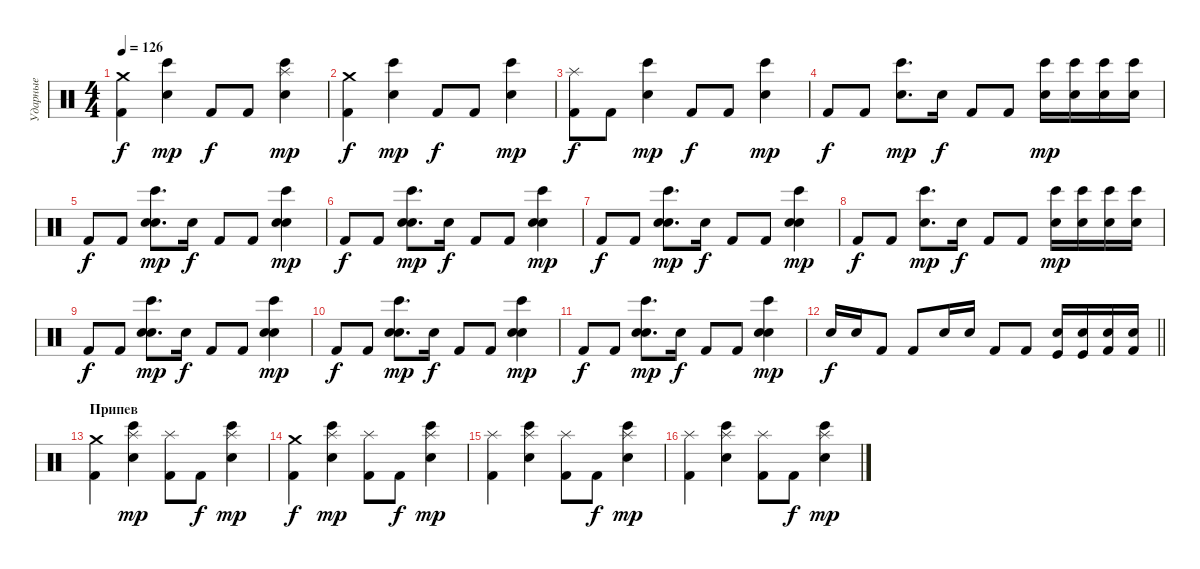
\track ("Ударные" "Ударные") {instrument percussion}
\staff {score}
\articulation defaults
\ts (4 4)
\tempo 126
\clef neutral
\ks c
("Crash medium (hit)" "Kick (hit) 2").4{dy f} ("Electric Snare (hit)" "Bongo High (hit)").4{dy mp} "Kick (hit) 2".8{dy f} "Kick (hit) 2".8 ("Splash (hit)" "Electric Snare (hit)" "Bongo High (hit)").4{dy mp} |
("Crash medium (hit)" "Kick (hit) 2").4{dy f} ("Electric Snare (hit)" "Bongo High (hit)").4{dy mp} "Kick (hit) 2".8{dy f} "Kick (hit) 2".8 ("Electric Snare (hit)" "Bongo High (hit)").4{dy mp} |
("Splash (hit)" "Kick (hit) 2").8{dy f} "Kick (hit) 2".8 ("Electric Snare (hit)" "Bongo High (hit)").4{dy mp} "Kick (hit) 2".8{dy f} "Kick (hit) 2".8 ("Electric Snare (hit)" "Bongo High (hit)").4{dy mp} |
"Kick (hit) 2".8{dy f} "Kick (hit) 2".8 ("Electric Snare (hit)" "Bongo High (hit)").8{d dy mp} "Electric Snare (hit)".16{dy f} "Kick (hit) 2".8 "Kick (hit) 2".8 ("Electric Snare (hit)" "Bongo High (hit)").16{dy mp} ("Electric Snare (hit)" "Bongo High (hit)").16 ("Electric Snare (hit)" "Bongo High (hit)").16 ("Electric Snare (hit)" "Bongo High (hit)").16 |
"Kick (hit) 2".8{dy f} "Kick (hit) 2".8 ("Electric Snare (hit)" "Bongo High (hit)" "Snare (hit) 2").8{d dy mp} "Electric Snare (hit)".16{dy f} "Kick (hit) 2".8 "Kick (hit) 2".8 ("Electric Snare (hit)" "Bongo High (hit)" "Snare (hit) 2").4{dy mp} |
"Kick (hit) 2".8{dy f} "Kick (hit) 2".8 ("Electric Snare (hit)" "Bongo High (hit)" "Snare (hit) 2").8{d dy mp} "Electric Snare (hit)".16{dy f} "Kick (hit) 2".8 "Kick (hit) 2".8 ("Electric Snare (hit)" "Bongo High (hit)" "Snare (hit) 2").4{dy mp} |
"Kick (hit) 2".8{dy f} "Kick (hit) 2".8 ("Electric Snare (hit)" "Bongo High (hit)" "Snare (hit) 2").8{d dy mp} "Electric Snare (hit)".16{dy f} "Kick (hit) 2".8 "Kick (hit) 2".8 ("Electric Snare (hit)" "Bongo High (hit)" "Snare (hit) 2").4{dy mp} |
"Kick (hit) 2".8{dy f} "Kick (hit) 2".8 ("Electric Snare (hit)" "Bongo High (hit)").8{d dy mp} "Electric Snare (hit)".16{dy f} "Kick (hit) 2".8 "Kick (hit) 2".8 ("Electric Snare (hit)" "Bongo High (hit)").16{dy mp} ("Electric Snare (hit)" "Bongo High (hit)").16 ("Electric Snare (hit)" "Bongo High (hit)").16 ("Electric Snare (hit)" "Bongo High (hit)").16 |
"Kick (hit) 2".8{dy f} "Kick (hit) 2".8 ("Electric Snare (hit)" "Bongo High (hit)" "Snare (hit) 2").8{d dy mp} "Electric Snare (hit)".16{dy f} "Kick (hit) 2".8 "Kick (hit) 2".8 ("Electric Snare (hit)" "Bongo High (hit)" "Snare (hit) 2").4{dy mp} |
"Kick (hit) 2".8{dy f} "Kick (hit) 2".8 ("Electric Snare (hit)" "Bongo High (hit)" "Snare (hit) 2").8{d dy mp} "Electric Snare (hit)".16{dy f} "Kick (hit) 2".8 "Kick (hit) 2".8 ("Electric Snare (hit)" "Bongo High (hit)" "Snare (hit) 2").4{dy mp} |
"Kick (hit) 2".8{dy f} "Kick (hit) 2".8 ("Electric Snare (hit)" "Bongo High (hit)" "Snare (hit) 2").8{d dy mp} "Electric Snare (hit)".16{dy f} "Kick (hit) 2".8 "Kick (hit) 2".8 ("Electric Snare (hit)" "Bongo High (hit)" "Snare (hit) 2").4{dy mp} |
\barLineRight lightlight "Electric Snare (hit)".16{dy f} "Electric Snare (hit)".16 "Kick (hit) 2".8 "Kick (hit) 2".8 "Electric Snare (hit)".16 "Electric Snare (hit)".16 "Kick (hit) 2".8 "Kick (hit) 2".8
("Electric Snare (hit)" "Kick (hit)").16 ("Electric Snare (hit)" "Kick (hit)").16 ("Electric Snare (hit)" "Kick (hit) 2").16 ("Electric Snare (hit)" "Kick (hit) 2").16 |
\section ("" "Припев")
("Crash medium (hit)" "Kick (hit) 2").4 ("Splash (hit)" "Electric Snare (hit)" "Bongo High (hit)").4{dy mp} ("Splash (hit)" "Kick (hit) 2").8 "Kick (hit) 2".8{dy f} ("Splash (hit)" "Electric Snare (hit)" "Bongo High (hit)").4{dy mp} |
("Crash medium (hit)" "Kick (hit) 2").4{dy f} ("Splash (hit)" "Electric Snare (hit)" "Bongo High (hit)").4{dy mp} ("Splash (hit)" "Kick (hit) 2").8 "Kick (hit) 2".8{dy f} ("Splash (hit)" "Electric Snare (hit)" "Bongo High (hit)").4{dy mp} |
("Splash (hit)" "Kick (hit) 2").4 ("Splash (hit)" "Electric Snare (hit)" "Bongo High (hit)").4 ("Splash (hit)" "Kick (hit) 2").8 "Kick (hit) 2".8{dy f} ("Splash (hit)" "Electric Snare (hit)" "Bongo High (hit)").4{dy mp} |
("Splash (hit)" "Kick (hit) 2").4 ("Splash (hit)" "Electric Snare (hit)" "Bongo High (hit)").4 ("Splash (hit)" "Kick (hit) 2").8 "Kick (hit) 2".8{dy f} ("Splash (hit)" "Electric Snare (hit)" "Bongo High (hit)").4{dy mp}
